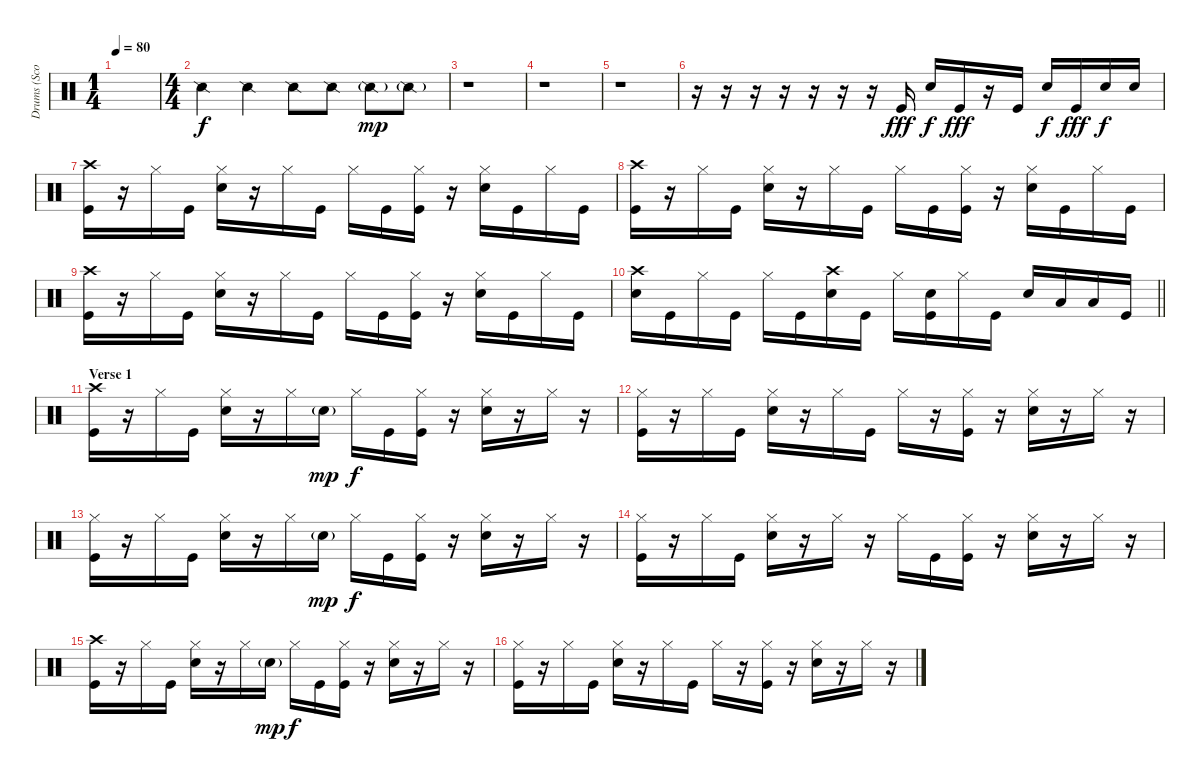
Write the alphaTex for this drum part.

\track ("Drums (Scott Phillips)" "Drums (Sco") {instrument percussion}
\staff {score}
\articulation defaults
\ts (1 4)
\tempo 80
\clef neutral
\ks c
|
\ts (4 4)
"Snare (side stick) 2".4 "Snare (side stick) 2".4 "Snare (side stick) 2".8 "Snare (side stick) 2".8 "Snare (side stick) 2"{g}.8{dy mp} "Snare (side stick) 2"{g}.8 |
r.1 |
r.1 |
r.1 |
r.16 r.16 r.16 r.16 r.16 r.16 r.16 "Kick (hit)".16{dy fff} "Snare (hit) 2".16{dy f} "Kick (hit)".16{dy fff} r.16 "Kick (hit)".16 "Snare (hit) 2".16{dy f} "Kick (hit)".16{dy fff} "Snare (hit) 2".16{dy f} "Snare (hit) 2".16 |
("Crash high (hit)" "Kick (hit)").16 r.16 "Hi-Hat (closed)".16 "Kick (hit)".16 ("Hi-Hat (closed)" "Snare (hit) 2").16 r.16 "Hi-Hat (closed)".16 "Kick (hit)".16 "Hi-Hat (closed)".16 "Kick (hit)".16 ("Hi-Hat (closed)" "Kick (hit)").16 r.16 ("Hi-Hat (closed)" "Snare (hit) 2").16 "Kick (hit)".16 "Hi-Hat (closed)".16 "Kick (hit)".16 |
("Crash high (hit)" "Kick (hit)").16 r.16 "Hi-Hat (closed)".16 "Kick (hit)".16 ("Hi-Hat (closed)" "Snare (hit) 2").16 r.16 "Hi-Hat (closed)".16 "Kick (hit)".16 "Hi-Hat (closed)".16 "Kick (hit)".16 ("Hi-Hat (closed)" "Kick (hit)").16 r.16 ("Hi-Hat (closed)" "Snare (hit) 2").16 "Kick (hit)".16 "Hi-Hat (closed)".16 "Kick (hit)".16 |
("Crash high (hit)" "Kick (hit)").16 r.16 "Hi-Hat (closed)".16 "Kick (hit)".16 ("Hi-Hat (closed)" "Snare (hit) 2").16 r.16 "Hi-Hat (closed)".16 "Kick (hit)".16 "Hi-Hat (closed)".16 "Kick (hit)".16 ("Hi-Hat (closed)" "Kick (hit)").16 r.16 ("Hi-Hat (closed)" "Snare (hit) 2").16 "Kick (hit)".16 "Hi-Hat (closed)".16 "Kick (hit)".16 |
\barLineRight lightlight
("Crash high (hit)" "Snare (hit) 2").16 "Kick (hit)".16 "Hi-Hat (closed)".16 "Kick (hit)".16 "Hi-Hat (closed)".16 "Kick (hit)".16 ("Crash high (hit)" "Snare (hit) 2").16 "Kick (hit)".16 "Hi-Hat (closed)".16 ("Snare (hit) 2" "Kick (hit)").16 "Hi-Hat (closed)".16 "Kick (hit)".16 "Snare (hit) 2".16 "Low Tom (hit)".16 "Low Tom (hit)".16 "Kick (hit)".16 |
\section ("" "Verse 1")
("Crash high (hit)" "Kick (hit)").16 r.16 "Hi-Hat (closed)".16 "Kick (hit)".16 ("Hi-Hat (closed)" "Snare (hit) 2").16 r.16 "Hi-Hat (closed)".16 "Snare (hit) 2"{g}.16{dy mp} "Hi-Hat (closed)".16{dy f} "Kick (hit)".16 ("Hi-Hat (closed)" "Kick (hit)").16 r.16 ("Hi-Hat (closed)" "Snare (hit) 2").16 r.16 "Hi-Hat (closed)".16 r.16 |
("Hi-Hat (closed)" "Kick (hit)").16 r.16 "Hi-Hat (closed)".16 "Kick (hit)".16 ("Hi-Hat (closed)" "Snare (hit) 2").16 r.16 "Hi-Hat (closed)".16 "Kick (hit)".16 "Hi-Hat (closed)".16 r.16 ("Hi-Hat (closed)" "Kick (hit)").16 r.16 ("Hi-Hat (closed)" "Snare (hit) 2").16 r.16 "Hi-Hat (closed)".16 r.16 |
("Hi-Hat (closed)" "Kick (hit)").16 r.16 "Hi-Hat (closed)".16 "Kick (hit)".16 ("Hi-Hat (closed)" "Snare (hit) 2").16 r.16 "Hi-Hat (closed)".16 "Snare (hit) 2"{g}.16{dy mp} "Hi-Hat (closed)".16{dy f} "Kick (hit)".16 ("Hi-Hat (closed)" "Kick (hit)").16 r.16 ("Hi-Hat (closed)" "Snare (hit) 2").16 r.16 "Hi-Hat (closed)".16 r.16 |
("Hi-Hat (closed)" "Kick (hit)").16 r.16 "Hi-Hat (closed)".16 "Kick (hit)".16 ("Hi-Hat (closed)" "Snare (hit) 2").16 r.16 "Hi-Hat (closed)".16 r.16 "Hi-Hat (closed)".16 "Kick (hit)".16 ("Hi-Hat (closed)" "Kick (hit)").16 r.16 ("Hi-Hat (closed)" "Snare (hit) 2").16 r.16 "Hi-Hat (closed)".16 r.16 |
("Crash high (hit)" "Kick (hit)").16 r.16 "Hi-Hat (closed)".16 "Kick (hit)".16 ("Hi-Hat (closed)" "Snare (hit) 2").16 r.16 "Hi-Hat (closed)".16 "Snare (hit) 2"{g}.16{dy mp} "Hi-Hat (closed)".16{dy f} "Kick (hit)".16 ("Hi-Hat (closed)" "Kick (hit)").16 r.16 ("Hi-Hat (closed)" "Snare (hit) 2").16 r.16 "Hi-Hat (closed)".16 r.16 |
("Hi-Hat (closed)" "Kick (hit)").16 r.16 "Hi-Hat (closed)".16 "Kick (hit)".16 ("Hi-Hat (closed)" "Snare (hit) 2").16 r.16 "Hi-Hat (closed)".16 "Kick (hit)".16 "Hi-Hat (closed)".16 r.16 ("Hi-Hat (closed)" "Kick (hit)").16 r.16 ("Hi-Hat (closed)" "Snare (hit) 2").16 r.16 "Hi-Hat (closed)".16 r.16
